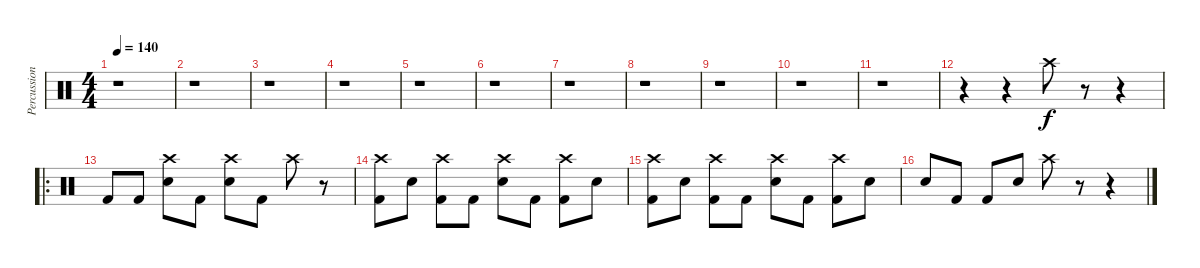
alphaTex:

\track ("Percussion" "Percussion") {instrument percussion}
\staff {score}
\articulation defaults
\ts (4 4)
\tempo 140
\clef neutral
\ks c
r.1{dy f} |
r.1 |
r.1 |
r.1 |
r.1 |
r.1 |
r.1 |
r.1 |
r.1 |
r.1 |
r.1 |
r.4 r.4 "Crash high (hit)".8 r.8 r.4 |
\ro "Kick (hit) 2".8 "Kick (hit) 2".8
("Crash high (hit)" "Electric Snare (hit)").8 "Kick (hit) 2".8 ("Crash high (hit)" "Electric Snare (hit)").8 "Kick (hit) 2".8 "Crash high (hit)".8 r.8 |
("Crash high (hit)" "Kick (hit) 2").8 "Electric Snare (hit)".8 ("Crash high (hit)" "Kick (hit) 2").8 "Kick (hit) 2".8 ("Crash high (hit)" "Electric Snare (hit)").8 "Kick (hit) 2".8 ("Crash high (hit)" "Kick (hit) 2").8 "Electric Snare (hit)".8 |
("Crash high (hit)" "Kick (hit) 2").8 "Electric Snare (hit)".8 ("Crash high (hit)" "Kick (hit) 2").8 "Kick (hit) 2".8 ("Crash high (hit)" "Electric Snare (hit)").8 "Kick (hit) 2".8 ("Crash high (hit)" "Kick (hit) 2").8 "Electric Snare (hit)".8 |
"Electric Snare (hit)".8 "Kick (hit) 2".8 "Kick (hit) 2".8 "Electric Snare (hit)".8 "Crash high (hit)".8 r.8 r.4
